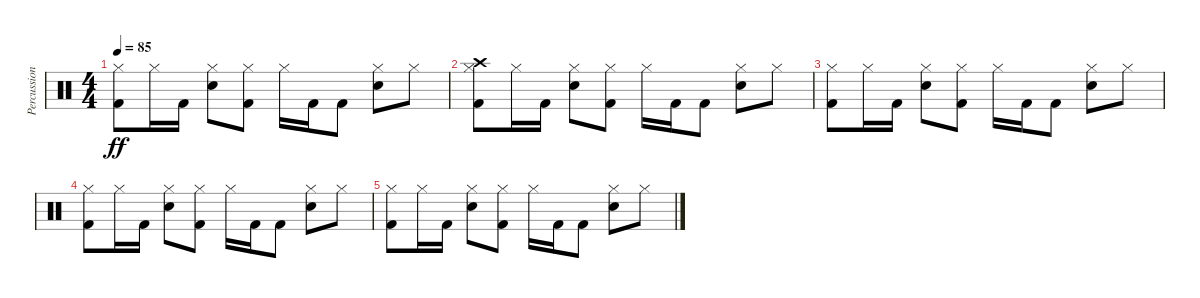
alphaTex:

\track ("Percussion" "Percussion") {instrument percussion}
\staff {score}
\articulation defaults
\ts (4 4)
\tempo 85
\clef neutral
\ks c
("Hi-Hat (closed)" "Kick (hit) 2").8{dy ff} "Hi-Hat (closed)".16 "Kick (hit) 2".16 ("Hi-Hat (closed)" "Electric Snare (hit)").8 ("Hi-Hat (closed)" "Kick (hit) 2").8 "Hi-Hat (closed)".16 "Kick (hit) 2".16 "Kick (hit) 2".8 ("Hi-Hat (closed)" "Electric Snare (hit)").8 "Hi-Hat (closed)".8 |
("Crash high (hit)" "Hi-Hat (closed)" "Kick (hit) 2").8 "Hi-Hat (closed)".16 "Kick (hit) 2".16 ("Hi-Hat (closed)" "Electric Snare (hit)").8 ("Hi-Hat (closed)" "Kick (hit) 2").8 "Hi-Hat (closed)".16 "Kick (hit) 2".16 "Kick (hit) 2".8 ("Hi-Hat (closed)" "Electric Snare (hit)").8 "Hi-Hat (closed)".8 |
("Hi-Hat (closed)" "Kick (hit) 2").8 "Hi-Hat (closed)".16 "Kick (hit) 2".16 ("Hi-Hat (closed)" "Electric Snare (hit)").8 ("Hi-Hat (closed)" "Kick (hit) 2").8 "Hi-Hat (closed)".16 "Kick (hit) 2".16 "Kick (hit) 2".8 ("Hi-Hat (closed)" "Electric Snare (hit)").8 "Hi-Hat (closed)".8 |
("Hi-Hat (closed)" "Kick (hit) 2").8 "Hi-Hat (closed)".16 "Kick (hit) 2".16 ("Hi-Hat (closed)" "Electric Snare (hit)").8 ("Hi-Hat (closed)" "Kick (hit) 2").8 "Hi-Hat (closed)".16 "Kick (hit) 2".16 "Kick (hit) 2".8 ("Hi-Hat (closed)" "Electric Snare (hit)").8 "Hi-Hat (closed)".8 |
("Hi-Hat (closed)" "Kick (hit) 2").8 "Hi-Hat (closed)".16 "Kick (hit) 2".16 ("Hi-Hat (closed)" "Electric Snare (hit)").8 ("Hi-Hat (closed)" "Kick (hit) 2").8 "Hi-Hat (closed)".16 "Kick (hit) 2".16 "Kick (hit) 2".8 ("Hi-Hat (closed)" "Electric Snare (hit)").8 "Hi-Hat (closed)".8
